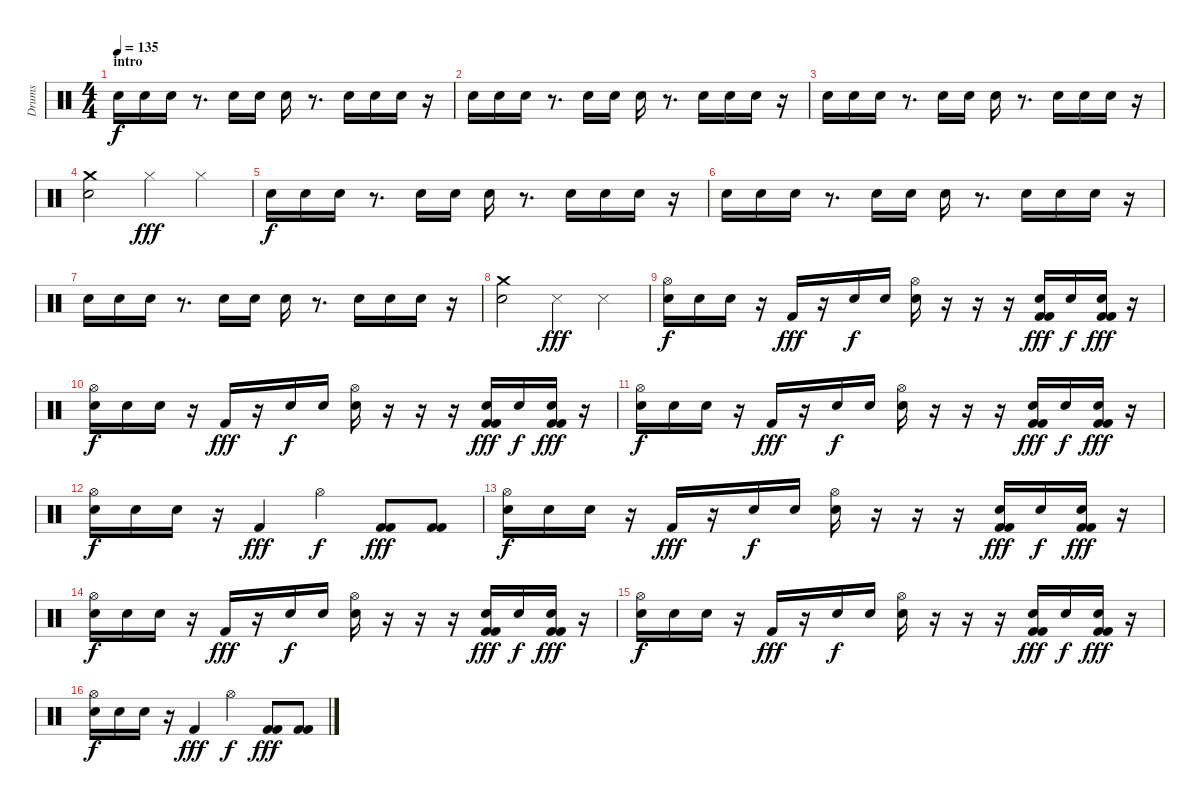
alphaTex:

\track ("Drums" "Drums") {instrument percussion}
\staff {score}
\articulation defaults
\ts (4 4)
\section ("" "intro")
\tempo 135
\clef neutral
\ks c "Electric Snare (hit)".16{dy f} "Electric Snare (hit)".16 "Electric Snare (hit)".16
r.8{d} "Electric Snare (hit)".16 "Electric Snare (hit)".16 "Electric Snare (hit)".16 r.8{d} "Electric Snare (hit)".16 "Electric Snare (hit)".16 "Electric Snare (hit)".16 r.16 |
"Electric Snare (hit)".16 "Electric Snare (hit)".16 "Electric Snare (hit)".16 r.8{d} "Electric Snare (hit)".16 "Electric Snare (hit)".16 "Electric Snare (hit)".16 r.8{d} "Electric Snare (hit)".16 "Electric Snare (hit)".16 "Electric Snare (hit)".16 r.16 |
"Electric Snare (hit)".16 "Electric Snare (hit)".16 "Electric Snare (hit)".16 r.8{d} "Electric Snare (hit)".16 "Electric Snare (hit)".16 "Electric Snare (hit)".16 r.8{d} "Electric Snare (hit)".16 "Electric Snare (hit)".16 "Electric Snare (hit)".16 r.16 |
("Crash medium (hit)" "Electric Snare (hit)").2 "Hi-Hat (closed)".4{dy fff} "Hi-Hat (closed)".4 |
"Electric Snare (hit)".16{dy f} "Electric Snare (hit)".16 "Electric Snare (hit)".16 r.8{d} "Electric Snare (hit)".16 "Electric Snare (hit)".16 "Electric Snare (hit)".16 r.8{d} "Electric Snare (hit)".16 "Electric Snare (hit)".16 "Electric Snare (hit)".16 r.16 |
"Electric Snare (hit)".16 "Electric Snare (hit)".16 "Electric Snare (hit)".16 r.8{d} "Electric Snare (hit)".16 "Electric Snare (hit)".16 "Electric Snare (hit)".16 r.8{d} "Electric Snare (hit)".16 "Electric Snare (hit)".16 "Electric Snare (hit)".16 r.16 |
"Electric Snare (hit)".16 "Electric Snare (hit)".16 "Electric Snare (hit)".16 r.8{d} "Electric Snare (hit)".16 "Electric Snare (hit)".16 "Electric Snare (hit)".16 r.8{d} "Electric Snare (hit)".16 "Electric Snare (hit)".16 "Electric Snare (hit)".16 r.16 |
("Crash medium (hit)" "Electric Snare (hit)").2 "Snare (side stick) 3".4{dy fff} "Snare (side stick) 3".4 |
("Hi-Hat (open)" "Electric Snare (hit)").16{dy f} "Electric Snare (hit)".16 "Electric Snare (hit)".16 r.16 "Kick (hit) 2".16{dy fff} r.16 "Electric Snare (hit)".16{dy f} "Electric Snare (hit)".16 ("Hi-Hat (open)" "Electric Snare (hit)").16 r.16 r.16 r.16 ("Kick (hit) 2" "Kick (hit) 2" "Electric Snare (hit)").16{dy fff} "Electric Snare (hit)".16{dy f} ("Kick (hit) 2" "Kick (hit) 2" "Electric Snare (hit)").16{dy fff} r.16 |
("Hi-Hat (open)" "Electric Snare (hit)").16{dy f} "Electric Snare (hit)".16 "Electric Snare (hit)".16 r.16 "Kick (hit) 2".16{dy fff} r.16 "Electric Snare (hit)".16{dy f} "Electric Snare (hit)".16 ("Hi-Hat (open)" "Electric Snare (hit)").16 r.16 r.16 r.16 ("Kick (hit) 2" "Kick (hit) 2" "Electric Snare (hit)").16{dy fff} "Electric Snare (hit)".16{dy f} ("Kick (hit) 2" "Kick (hit) 2" "Electric Snare (hit)").16{dy fff} r.16 |
("Hi-Hat (open)" "Electric Snare (hit)").16{dy f} "Electric Snare (hit)".16 "Electric Snare (hit)".16 r.16 "Kick (hit) 2".16{dy fff} r.16 "Electric Snare (hit)".16{dy f} "Electric Snare (hit)".16 ("Hi-Hat (open)" "Electric Snare (hit)").16 r.16 r.16 r.16 ("Kick (hit) 2" "Kick (hit) 2" "Electric Snare (hit)").16{dy fff} "Electric Snare (hit)".16{dy f} ("Kick (hit) 2" "Kick (hit) 2" "Electric Snare (hit)").16{dy fff} r.16 |
("Hi-Hat (open)" "Electric Snare (hit)").16{dy f} "Electric Snare (hit)".16 "Electric Snare (hit)".16 r.16 "Kick (hit) 2".4{dy fff} "Hi-Hat (open)".4{dy f} ("Kick (hit) 2" "Kick (hit) 2").8{dy fff} ("Kick (hit) 2" "Kick (hit) 2").8 |
("Hi-Hat (open)" "Electric Snare (hit)").16{dy f} "Electric Snare (hit)".16 "Electric Snare (hit)".16 r.16 "Kick (hit) 2".16{dy fff} r.16 "Electric Snare (hit)".16{dy f} "Electric Snare (hit)".16 ("Hi-Hat (open)" "Electric Snare (hit)").16 r.16 r.16 r.16 ("Kick (hit) 2" "Kick (hit) 2" "Electric Snare (hit)").16{dy fff} "Electric Snare (hit)".16{dy f} ("Kick (hit) 2" "Kick (hit) 2" "Electric Snare (hit)").16{dy fff} r.16 |
("Hi-Hat (open)" "Electric Snare (hit)").16{dy f} "Electric Snare (hit)".16 "Electric Snare (hit)".16 r.16 "Kick (hit) 2".16{dy fff} r.16 "Electric Snare (hit)".16{dy f} "Electric Snare (hit)".16 ("Hi-Hat (open)" "Electric Snare (hit)").16 r.16 r.16 r.16 ("Kick (hit) 2" "Kick (hit) 2" "Electric Snare (hit)").16{dy fff} "Electric Snare (hit)".16{dy f} ("Kick (hit) 2" "Kick (hit) 2" "Electric Snare (hit)").16{dy fff} r.16 |
("Hi-Hat (open)" "Electric Snare (hit)").16{dy f} "Electric Snare (hit)".16 "Electric Snare (hit)".16 r.16 "Kick (hit) 2".16{dy fff} r.16 "Electric Snare (hit)".16{dy f} "Electric Snare (hit)".16 ("Hi-Hat (open)" "Electric Snare (hit)").16 r.16 r.16 r.16 ("Kick (hit) 2" "Kick (hit) 2" "Electric Snare (hit)").16{dy fff} "Electric Snare (hit)".16{dy f} ("Kick (hit) 2" "Kick (hit) 2" "Electric Snare (hit)").16{dy fff} r.16 |
("Hi-Hat (open)" "Electric Snare (hit)").16{dy f} "Electric Snare (hit)".16 "Electric Snare (hit)".16 r.16 "Kick (hit) 2".4{dy fff} "Hi-Hat (open)".4{dy f} ("Kick (hit) 2" "Kick (hit) 2").8{dy fff} ("Kick (hit) 2" "Kick (hit) 2").8
